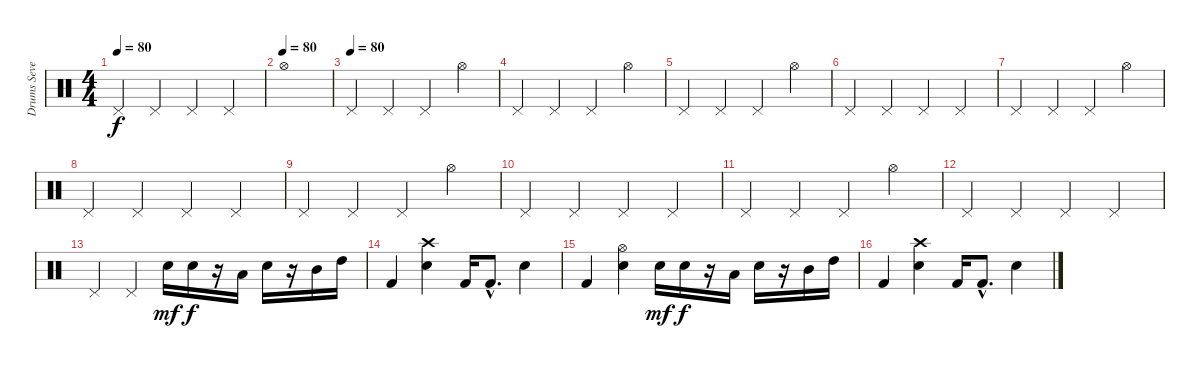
\track ("Drums Severin " "Drums Seve") {instrument percussion}
\staff {score}
\articulation defaults
\ts (4 4)
\tempo 80
\clef neutral
\ks c "Pedal Hi-Hat (hit)".4{dy f} "Pedal Hi-Hat (hit)".4 "Pedal Hi-Hat (hit)".4 "Pedal Hi-Hat (hit)".4
|
\tempo (80)
"Hi-Hat (open)".1 |
\tempo (80)
"Pedal Hi-Hat (hit)".4 "Pedal Hi-Hat (hit)".4 "Pedal Hi-Hat (hit)".4 "Hi-Hat (open)".4 |
"Pedal Hi-Hat (hit)".4 "Pedal Hi-Hat (hit)".4 "Pedal Hi-Hat (hit)".4 "Hi-Hat (open)".4 |
"Pedal Hi-Hat (hit)".4 "Pedal Hi-Hat (hit)".4 "Pedal Hi-Hat (hit)".4 "Hi-Hat (open)".4 |
"Pedal Hi-Hat (hit)".4 "Pedal Hi-Hat (hit)".4 "Pedal Hi-Hat (hit)".4 "Pedal Hi-Hat (hit)".4 |
"Pedal Hi-Hat (hit)".4 "Pedal Hi-Hat (hit)".4 "Pedal Hi-Hat (hit)".4 "Hi-Hat (open)".4 |
"Pedal Hi-Hat (hit)".4 "Pedal Hi-Hat (hit)".4 "Pedal Hi-Hat (hit)".4 "Pedal Hi-Hat (hit)".4 |
"Pedal Hi-Hat (hit)".4 "Pedal Hi-Hat (hit)".4 "Pedal Hi-Hat (hit)".4 "Hi-Hat (open)".4 |
"Pedal Hi-Hat (hit)".4 "Pedal Hi-Hat (hit)".4 "Pedal Hi-Hat (hit)".4 "Pedal Hi-Hat (hit)".4 |
"Pedal Hi-Hat (hit)".4 "Pedal Hi-Hat (hit)".4 "Pedal Hi-Hat (hit)".4 "Hi-Hat (open)".4 |
"Pedal Hi-Hat (hit)".4 "Pedal Hi-Hat (hit)".4 "Pedal Hi-Hat (hit)".4 "Pedal Hi-Hat (hit)".4 |
"Pedal Hi-Hat (hit)".4 "Pedal Hi-Hat (hit)".4 "Electric Snare (hit)".16{dy mf} "Electric Snare (hit)".16{dy f} r.16 "Low Tom (hit)".16 "Electric Snare (hit)".16 r.16 "Mid Tom (hit)".16 "High Tom (hit)".16 |
"Kick (hit) 2".4 ("Electric Snare (hit)" "Crash high (hit)").4 "Kick (hit) 2".16 "Kick (hit) 2"{hac}.8{d} "Electric Snare (hit)".4 |
"Kick (hit) 2".4 ("Hi-Hat (open)" "Electric Snare (hit)").4 "Electric Snare (hit)".16{dy mf} "Electric Snare (hit)".16{dy f} r.16 "Low Tom (hit)".16 "Electric Snare (hit)".16 r.16 "Mid Tom (hit)".16 "High Tom (hit)".16 |
"Kick (hit) 2".4 ("Electric Snare (hit)" "Crash high (hit)").4 "Kick (hit) 2".16 "Kick (hit) 2"{hac}.8{d} "Electric Snare (hit)".4
